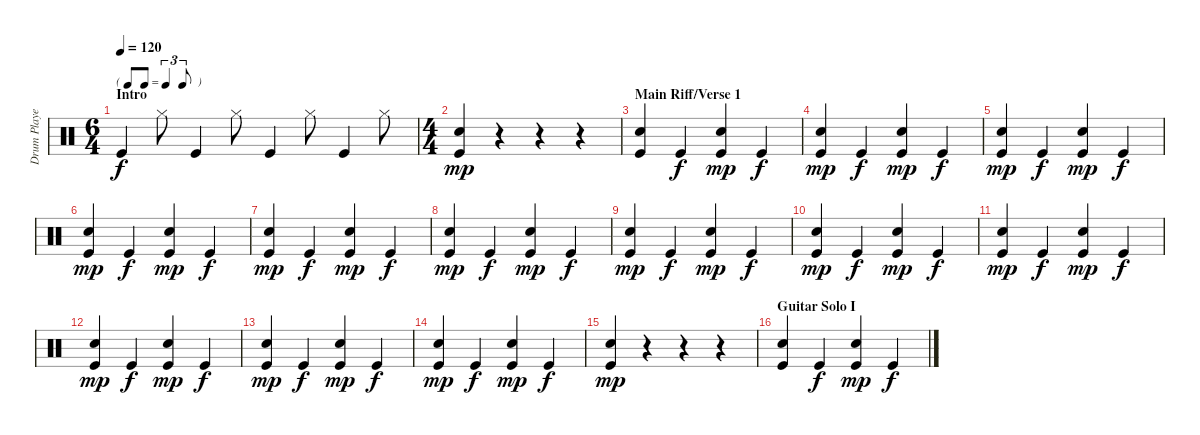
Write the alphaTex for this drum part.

\track ("Drum Player" "Drum Playe") {instrument percussion}
\staff {score}
\articulation defaults
\ts (6 4)
\tf triplet8th
\section ("" "Intro")
\tempo 120
\clef neutral
\ks c "Kick (hit)".4{dy f} "Hi-Hat (closed)".8 "Kick (hit)".4 "Hi-Hat (closed)".8 "Kick (hit)".4 "Hi-Hat (closed)".8 "Kick (hit)".4 "Hi-Hat (closed)".8
|
\ts (4 4)
("Hand Clap (hit)" "Kick (hit)").4{dy mp} r.4 r.4 r.4 |
\section ("" "Main Riff/Verse 1")
("Hand Clap (hit)" "Kick (hit)").4 "Kick (hit)".4{dy f} ("Hand Clap (hit)" "Kick (hit)").4{dy mp} "Kick (hit)".4{dy f} |
("Hand Clap (hit)" "Kick (hit)").4{dy mp} "Kick (hit)".4{dy f} ("Hand Clap (hit)" "Kick (hit)").4{dy mp} "Kick (hit)".4{dy f} |
("Hand Clap (hit)" "Kick (hit)").4{dy mp} "Kick (hit)".4{dy f} ("Hand Clap (hit)" "Kick (hit)").4{dy mp} "Kick (hit)".4{dy f} |
("Hand Clap (hit)" "Kick (hit)").4{dy mp} "Kick (hit)".4{dy f} ("Hand Clap (hit)" "Kick (hit)").4{dy mp} "Kick (hit)".4{dy f} |
("Hand Clap (hit)" "Kick (hit)").4{dy mp} "Kick (hit)".4{dy f} ("Hand Clap (hit)" "Kick (hit)").4{dy mp} "Kick (hit)".4{dy f} |
("Hand Clap (hit)" "Kick (hit)").4{dy mp} "Kick (hit)".4{dy f} ("Hand Clap (hit)" "Kick (hit)").4{dy mp} "Kick (hit)".4{dy f} |
("Hand Clap (hit)" "Kick (hit)").4{dy mp} "Kick (hit)".4{dy f} ("Hand Clap (hit)" "Kick (hit)").4{dy mp} "Kick (hit)".4{dy f} |
("Hand Clap (hit)" "Kick (hit)").4{dy mp} "Kick (hit)".4{dy f} ("Hand Clap (hit)" "Kick (hit)").4{dy mp} "Kick (hit)".4{dy f} |
("Hand Clap (hit)" "Kick (hit)").4{dy mp} "Kick (hit)".4{dy f} ("Hand Clap (hit)" "Kick (hit)").4{dy mp} "Kick (hit)".4{dy f} |
("Hand Clap (hit)" "Kick (hit)").4{dy mp} "Kick (hit)".4{dy f} ("Hand Clap (hit)" "Kick (hit)").4{dy mp} "Kick (hit)".4{dy f} |
("Hand Clap (hit)" "Kick (hit)").4{dy mp} "Kick (hit)".4{dy f} ("Hand Clap (hit)" "Kick (hit)").4{dy mp} "Kick (hit)".4{dy f} |
("Hand Clap (hit)" "Kick (hit)").4{dy mp} "Kick (hit)".4{dy f} ("Hand Clap (hit)" "Kick (hit)").4{dy mp} "Kick (hit)".4{dy f} |
("Hand Clap (hit)" "Kick (hit)").4{dy mp} r.4 r.4 r.4 |
\section ("" "Guitar Solo I")
("Hand Clap (hit)" "Kick (hit)").4 "Kick (hit)".4{dy f} ("Hand Clap (hit)" "Kick (hit)").4{dy mp} "Kick (hit)".4{dy f}
